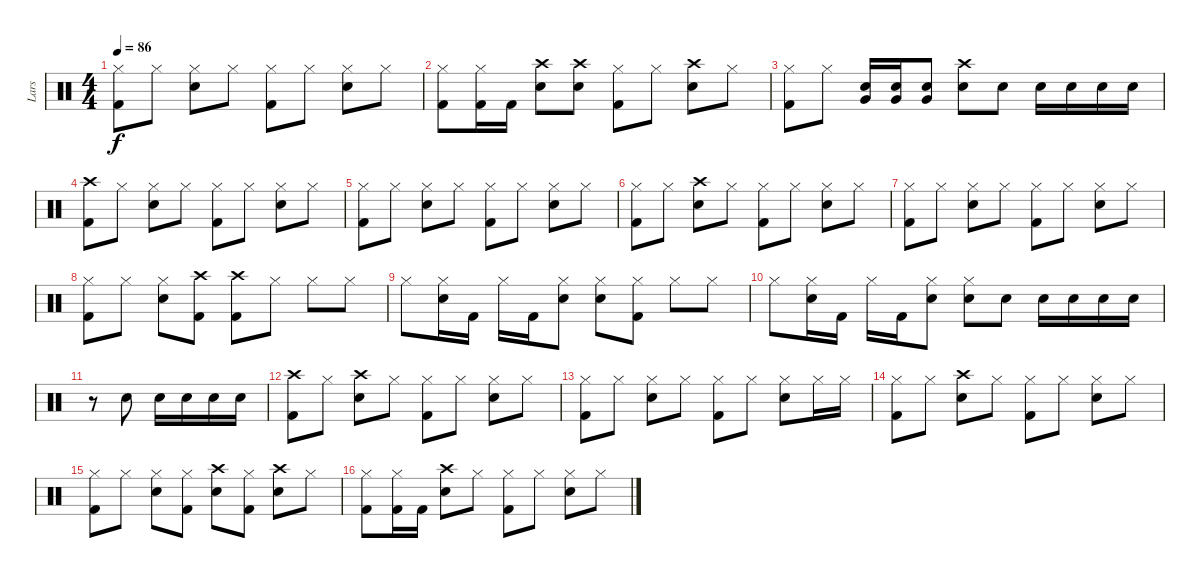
\track ("Lars" "Lars") {instrument percussion}
\staff {score}
\articulation defaults
\ts (4 4)
\tempo 86
\clef neutral
\ks c
("Hi-Hat (closed)" "Kick (hit) 2").8{dy f} "Hi-Hat (closed)".8 ("Hi-Hat (closed)" "Electric Snare (hit)").8 "Hi-Hat (closed)".8 ("Hi-Hat (closed)" "Kick (hit) 2").8 "Hi-Hat (closed)".8 ("Hi-Hat (closed)" "Electric Snare (hit)").8 "Hi-Hat (closed)".8 |
("Hi-Hat (closed)" "Kick (hit) 2").8 ("Hi-Hat (closed)" "Kick (hit) 2").16 "Kick (hit) 2".16 ("Crash high (hit)" "Electric Snare (hit)").8 ("Crash high (hit)" "Electric Snare (hit)").8 ("Hi-Hat (closed)" "Kick (hit) 2").8 "Hi-Hat (closed)".8 ("Crash high (hit)" "Electric Snare (hit)").8 "Hi-Hat (closed)".8 |
("Hi-Hat (closed)" "Kick (hit) 2").8 "Hi-Hat (closed)".8 ("Electric Snare (hit)" "Very Low Tom (hit)").16 ("Electric Snare (hit)" "Very Low Tom (hit)").16 ("Electric Snare (hit)" "Very Low Tom (hit)").8 ("Crash high (hit)" "Electric Snare (hit)").8 "Electric Snare (hit)".8 "Electric Snare (hit)".16 "Electric Snare (hit)".16 "Electric Snare (hit)".16 "Electric Snare (hit)".16 |
("Crash high (hit)" "Kick (hit) 2").8 "Hi-Hat (closed)".8 ("Hi-Hat (closed)" "Electric Snare (hit)").8 "Hi-Hat (closed)".8 ("Hi-Hat (closed)" "Kick (hit) 2").8 "Hi-Hat (closed)".8 ("Hi-Hat (closed)" "Electric Snare (hit)").8 "Hi-Hat (closed)".8 |
("Hi-Hat (closed)" "Kick (hit) 2").8 "Hi-Hat (closed)".8 ("Hi-Hat (closed)" "Electric Snare (hit)").8 "Hi-Hat (closed)".8 ("Hi-Hat (closed)" "Kick (hit) 2").8 "Hi-Hat (closed)".8 ("Hi-Hat (closed)" "Electric Snare (hit)").8 "Hi-Hat (closed)".8 |
("Hi-Hat (closed)" "Kick (hit) 2").8 "Hi-Hat (closed)".8 ("Crash high (hit)" "Electric Snare (hit)").8 "Hi-Hat (closed)".8 ("Hi-Hat (closed)" "Kick (hit) 2").8 "Hi-Hat (closed)".8 ("Hi-Hat (closed)" "Electric Snare (hit)").8 "Hi-Hat (closed)".8 |
("Hi-Hat (closed)" "Kick (hit) 2").8 "Hi-Hat (closed)".8 ("Hi-Hat (closed)" "Electric Snare (hit)").8 "Hi-Hat (closed)".8 ("Hi-Hat (closed)" "Kick (hit) 2").8 "Hi-Hat (closed)".8 ("Hi-Hat (closed)" "Electric Snare (hit)").8 "Hi-Hat (closed)".8 |
("Hi-Hat (closed)" "Kick (hit) 2").8 "Hi-Hat (closed)".8 ("Hi-Hat (closed)" "Electric Snare (hit)").8 ("Crash high (hit)" "Kick (hit) 2").8 ("Crash high (hit)" "Kick (hit) 2").8 "Hi-Hat (closed)".8 "Hi-Hat (closed)".8 "Hi-Hat (closed)".8 |
"Hi-Hat (closed)".8 ("Hi-Hat (closed)" "Electric Snare (hit)").16 "Kick (hit) 2".16 "Hi-Hat (closed)".16 "Kick (hit) 2".16 ("Hi-Hat (closed)" "Electric Snare (hit)").8 ("Hi-Hat (closed)" "Electric Snare (hit)").8 ("Hi-Hat (closed)" "Kick (hit) 2").8 "Hi-Hat (closed)".8 "Hi-Hat (closed)".8 |
"Hi-Hat (closed)".8 ("Hi-Hat (closed)" "Electric Snare (hit)").16 "Kick (hit) 2".16 "Hi-Hat (closed)".16 "Kick (hit) 2".16 ("Hi-Hat (closed)" "Electric Snare (hit)").8 ("Hi-Hat (closed)" "Electric Snare (hit)").8 "Electric Snare (hit)".8 "Electric Snare (hit)".16 "Electric Snare (hit)".16 "Electric Snare (hit)".16 "Electric Snare (hit)".16 |
r.8 "Electric Snare (hit)".8 "Electric Snare (hit)".16 "Electric Snare (hit)".16 "Electric Snare (hit)".16 "Electric Snare (hit)".16 |
("Crash high (hit)" "Kick (hit) 2").8 "Hi-Hat (closed)".8 ("Crash high (hit)" "Electric Snare (hit)").8 "Hi-Hat (closed)".8 ("Hi-Hat (closed)" "Kick (hit) 2").8 "Hi-Hat (closed)".8 ("Hi-Hat (closed)" "Electric Snare (hit)").8 "Hi-Hat (closed)".8 |
("Hi-Hat (closed)" "Kick (hit) 2").8 "Hi-Hat (closed)".8 ("Hi-Hat (closed)" "Electric Snare (hit)").8 "Hi-Hat (closed)".8 ("Hi-Hat (closed)" "Kick (hit) 2").8 "Hi-Hat (closed)".8 ("Hi-Hat (closed)" "Electric Snare (hit)").8 "Hi-Hat (closed)".16 "Hi-Hat (closed)".16 |
("Hi-Hat (closed)" "Kick (hit) 2").8 "Hi-Hat (closed)".8 ("Crash high (hit)" "Electric Snare (hit)").8 "Hi-Hat (closed)".8 ("Hi-Hat (closed)" "Kick (hit) 2").8 "Hi-Hat (closed)".8 ("Hi-Hat (closed)" "Electric Snare (hit)").8 "Hi-Hat (closed)".8 |
("Hi-Hat (closed)" "Kick (hit) 2").8 "Hi-Hat (closed)".8 ("Hi-Hat (closed)" "Electric Snare (hit)").8 ("Hi-Hat (closed)" "Kick (hit) 2").8 ("Crash high (hit)" "Electric Snare (hit)").8 ("Hi-Hat (closed)" "Kick (hit) 2").8 ("Crash high (hit)" "Electric Snare (hit)").8 "Hi-Hat (closed)".8 |
("Hi-Hat (closed)" "Kick (hit) 2").8 ("Hi-Hat (closed)" "Kick (hit) 2").16 "Kick (hit) 2".16 ("Crash high (hit)" "Electric Snare (hit)").8 "Hi-Hat (closed)".8 ("Hi-Hat (closed)" "Kick (hit) 2").8 "Hi-Hat (closed)".8 ("Hi-Hat (closed)" "Electric Snare (hit)").8 "Hi-Hat (closed)".8
